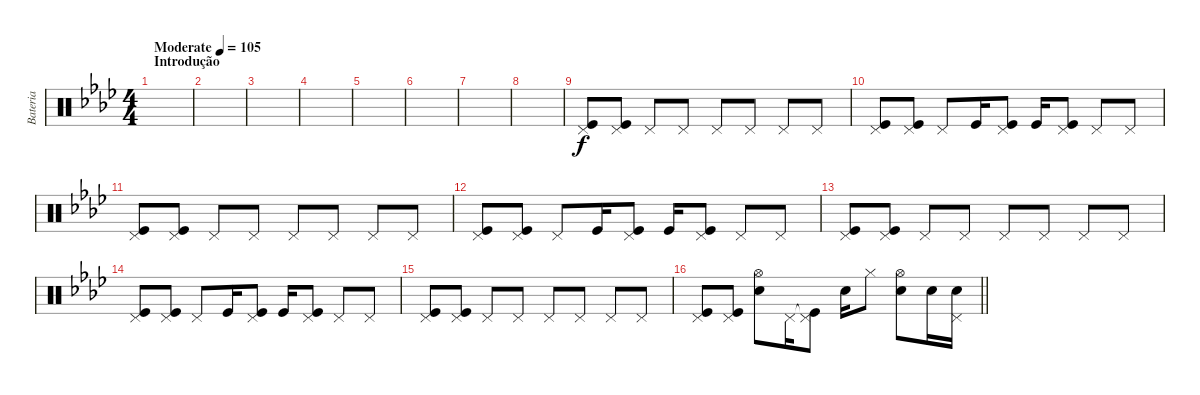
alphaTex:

\track ("Bateria" "Bateria") {instrument percussion}
\staff {score}
\articulation defaults
\ts (4 4)
\section ("" "Introdução")
\tempo (105 "Moderate")
\clef neutral
\ks fminor
|
|
|
|
|
|
|
|
("Pedal Hi-Hat (hit)" "Kick (hit)").8 ("Pedal Hi-Hat (hit)" "Kick (hit)").8 "Pedal Hi-Hat (hit)".8 "Pedal Hi-Hat (hit)".8 "Pedal Hi-Hat (hit)".8 "Pedal Hi-Hat (hit)".8 "Pedal Hi-Hat (hit)".8 "Pedal Hi-Hat (hit)".8 |
("Pedal Hi-Hat (hit)" "Kick (hit)").8 ("Pedal Hi-Hat (hit)" "Kick (hit)").8 "Pedal Hi-Hat (hit)".8 "Kick (hit)".16 ("Pedal Hi-Hat (hit)" "Kick (hit)").8 "Kick (hit)".16 ("Pedal Hi-Hat (hit)" "Kick (hit)").8 "Pedal Hi-Hat (hit)".8 "Pedal Hi-Hat (hit)".8 |
("Pedal Hi-Hat (hit)" "Kick (hit)").8 ("Pedal Hi-Hat (hit)" "Kick (hit)").8 "Pedal Hi-Hat (hit)".8 "Pedal Hi-Hat (hit)".8 "Pedal Hi-Hat (hit)".8 "Pedal Hi-Hat (hit)".8 "Pedal Hi-Hat (hit)".8 "Pedal Hi-Hat (hit)".8 |
("Pedal Hi-Hat (hit)" "Kick (hit)").8 ("Pedal Hi-Hat (hit)" "Kick (hit)").8 "Pedal Hi-Hat (hit)".8 "Kick (hit)".16 ("Pedal Hi-Hat (hit)" "Kick (hit)").8 "Kick (hit)".16 ("Pedal Hi-Hat (hit)" "Kick (hit)").8 "Pedal Hi-Hat (hit)".8 "Pedal Hi-Hat (hit)".8 |
("Pedal Hi-Hat (hit)" "Kick (hit)").8 ("Pedal Hi-Hat (hit)" "Kick (hit)").8 "Pedal Hi-Hat (hit)".8 "Pedal Hi-Hat (hit)".8 "Pedal Hi-Hat (hit)".8 "Pedal Hi-Hat (hit)".8 "Pedal Hi-Hat (hit)".8 "Pedal Hi-Hat (hit)".8 |
("Pedal Hi-Hat (hit)" "Kick (hit)").8 ("Pedal Hi-Hat (hit)" "Kick (hit)").8 "Pedal Hi-Hat (hit)".8 "Kick (hit)".16 ("Pedal Hi-Hat (hit)" "Kick (hit)").8 "Kick (hit)".16 ("Pedal Hi-Hat (hit)" "Kick (hit)").8 "Pedal Hi-Hat (hit)".8 "Pedal Hi-Hat (hit)".8 |
("Pedal Hi-Hat (hit)" "Kick (hit)").8 ("Pedal Hi-Hat (hit)" "Kick (hit)").8 "Pedal Hi-Hat (hit)".8 "Pedal Hi-Hat (hit)".8 "Pedal Hi-Hat (hit)".8 "Pedal Hi-Hat (hit)".8 "Pedal Hi-Hat (hit)".8 "Pedal Hi-Hat (hit)".8 |
\barLineRight lightlight
("Pedal Hi-Hat (hit)" "Kick (hit)").8 ("Pedal Hi-Hat (hit)" "Kick (hit)").8 ("Hi-Hat (open)" "Electric Snare (hit)").8 "Pedal Hi-Hat (hit)".16 ("Pedal Hi-Hat (hit)"{t} "Kick (hit)").8 "Electric Snare (hit)".16 "Hi-Hat (closed)".8 ("Hi-Hat (open)" "Electric Snare (hit)").8 "Electric Snare (hit)".16 ("Pedal Hi-Hat (hit)" "Electric Snare (hit)").16
